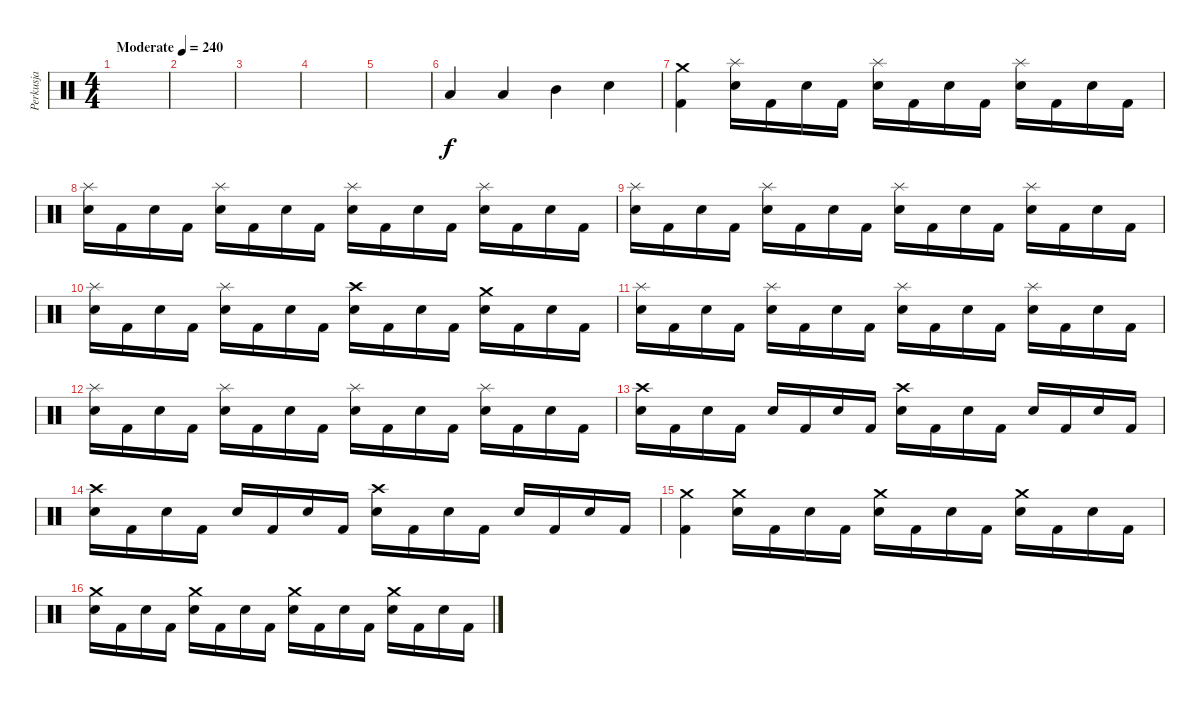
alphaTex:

\track ("Perkusja" "Perkusja") {instrument percussion}
\staff {score}
\articulation defaults
\ts (4 4)
\tempo (240 "Moderate")
\clef neutral
\ks c
|
|
|
|
|
"Low Floor Tom (hit)".4 "Low Tom (hit)".4 "Mid Tom (hit)".4 "Snare (hit) 2".4 |
("Crash medium (hit)" "Kick (hit) 2").4 ("Splash (hit)" "Snare (hit) 2").16 "Kick (hit) 2".16 "Snare (hit) 2".16 "Kick (hit) 2".16 ("Splash (hit)" "Snare (hit) 2").16 "Kick (hit) 2".16 "Snare (hit) 2".16 "Kick (hit) 2".16 ("Splash (hit)" "Snare (hit) 2").16 "Kick (hit) 2".16 "Snare (hit) 2".16 "Kick (hit) 2".16 |
("Splash (hit)" "Snare (hit) 2").16 "Kick (hit) 2".16 "Snare (hit) 2".16 "Kick (hit) 2".16 ("Splash (hit)" "Snare (hit) 2").16 "Kick (hit) 2".16 "Snare (hit) 2".16 "Kick (hit) 2".16 ("Splash (hit)" "Snare (hit) 2").16 "Kick (hit) 2".16 "Snare (hit) 2".16 "Kick (hit) 2".16 ("Splash (hit)" "Snare (hit) 2").16 "Kick (hit) 2".16 "Snare (hit) 2".16 "Kick (hit) 2".16 |
("Splash (hit)" "Snare (hit) 2").16 "Kick (hit) 2".16 "Snare (hit) 2".16 "Kick (hit) 2".16 ("Splash (hit)" "Snare (hit) 2").16 "Kick (hit) 2".16 "Snare (hit) 2".16 "Kick (hit) 2".16 ("Splash (hit)" "Snare (hit) 2").16 "Kick (hit) 2".16 "Snare (hit) 2".16 "Kick (hit) 2".16 ("Splash (hit)" "Snare (hit) 2").16 "Kick (hit) 2".16 "Snare (hit) 2".16 "Kick (hit) 2".16 |
("Splash (hit)" "Snare (hit) 2").16 "Kick (hit) 2".16 "Snare (hit) 2".16 "Kick (hit) 2".16 ("Splash (hit)" "Snare (hit) 2").16 "Kick (hit) 2".16 "Snare (hit) 2".16 "Kick (hit) 2".16 ("Crash high (hit)" "Snare (hit) 2").16 "Kick (hit) 2".16 "Snare (hit) 2".16 "Kick (hit) 2".16 ("Crash medium (hit)" "Snare (hit) 2").16 "Kick (hit) 2".16 "Snare (hit) 2".16 "Kick (hit) 2".16 |
("Splash (hit)" "Snare (hit) 2").16 "Kick (hit) 2".16 "Snare (hit) 2".16 "Kick (hit) 2".16 ("Splash (hit)" "Snare (hit) 2").16 "Kick (hit) 2".16 "Snare (hit) 2".16 "Kick (hit) 2".16 ("Splash (hit)" "Snare (hit) 2").16 "Kick (hit) 2".16 "Snare (hit) 2".16 "Kick (hit) 2".16 ("Splash (hit)" "Snare (hit) 2").16 "Kick (hit) 2".16 "Snare (hit) 2".16 "Kick (hit) 2".16 |
("Splash (hit)" "Snare (hit) 2").16 "Kick (hit) 2".16 "Snare (hit) 2".16 "Kick (hit) 2".16 ("Splash (hit)" "Snare (hit) 2").16 "Kick (hit) 2".16 "Snare (hit) 2".16 "Kick (hit) 2".16 ("Splash (hit)" "Snare (hit) 2").16 "Kick (hit) 2".16 "Snare (hit) 2".16 "Kick (hit) 2".16 ("Splash (hit)" "Snare (hit) 2").16 "Kick (hit) 2".16 "Snare (hit) 2".16 "Kick (hit) 2".16 |
("Crash high (hit)" "Snare (hit) 2").16 "Kick (hit) 2".16 "Snare (hit) 2".16 "Kick (hit) 2".16 "Snare (hit) 2".16 "Kick (hit) 2".16 "Snare (hit) 2".16 "Kick (hit) 2".16 ("Crash high (hit)" "Snare (hit) 2").16 "Kick (hit) 2".16 "Snare (hit) 2".16 "Kick (hit) 2".16 "Snare (hit) 2".16 "Kick (hit) 2".16 "Snare (hit) 2".16 "Kick (hit) 2".16 |
("Crash high (hit)" "Snare (hit) 2").16 "Kick (hit) 2".16 "Snare (hit) 2".16 "Kick (hit) 2".16 "Snare (hit) 2".16 "Kick (hit) 2".16 "Snare (hit) 2".16 "Kick (hit) 2".16 ("Crash high (hit)" "Snare (hit) 2").16 "Kick (hit) 2".16 "Snare (hit) 2".16 "Kick (hit) 2".16 "Snare (hit) 2".16 "Kick (hit) 2".16 "Snare (hit) 2".16 "Kick (hit) 2".16 |
("Crash medium (hit)" "Kick (hit) 2").4 ("Crash medium (hit)" "Snare (hit) 2").16 "Kick (hit) 2".16 "Snare (hit) 2".16 "Kick (hit) 2".16 ("Crash medium (hit)" "Snare (hit) 2").16 "Kick (hit) 2".16 "Snare (hit) 2".16 "Kick (hit) 2".16 ("Crash medium (hit)" "Snare (hit) 2").16 "Kick (hit) 2".16 "Snare (hit) 2".16 "Kick (hit) 2".16 |
("Crash medium (hit)" "Snare (hit) 2").16 "Kick (hit) 2".16 "Snare (hit) 2".16 "Kick (hit) 2".16 ("Crash medium (hit)" "Snare (hit) 2").16 "Kick (hit) 2".16 "Snare (hit) 2".16 "Kick (hit) 2".16 ("Crash medium (hit)" "Snare (hit) 2").16 "Kick (hit) 2".16 "Snare (hit) 2".16 "Kick (hit) 2".16 ("Crash medium (hit)" "Snare (hit) 2").16 "Kick (hit) 2".16 "Snare (hit) 2".16 "Kick (hit) 2".16
